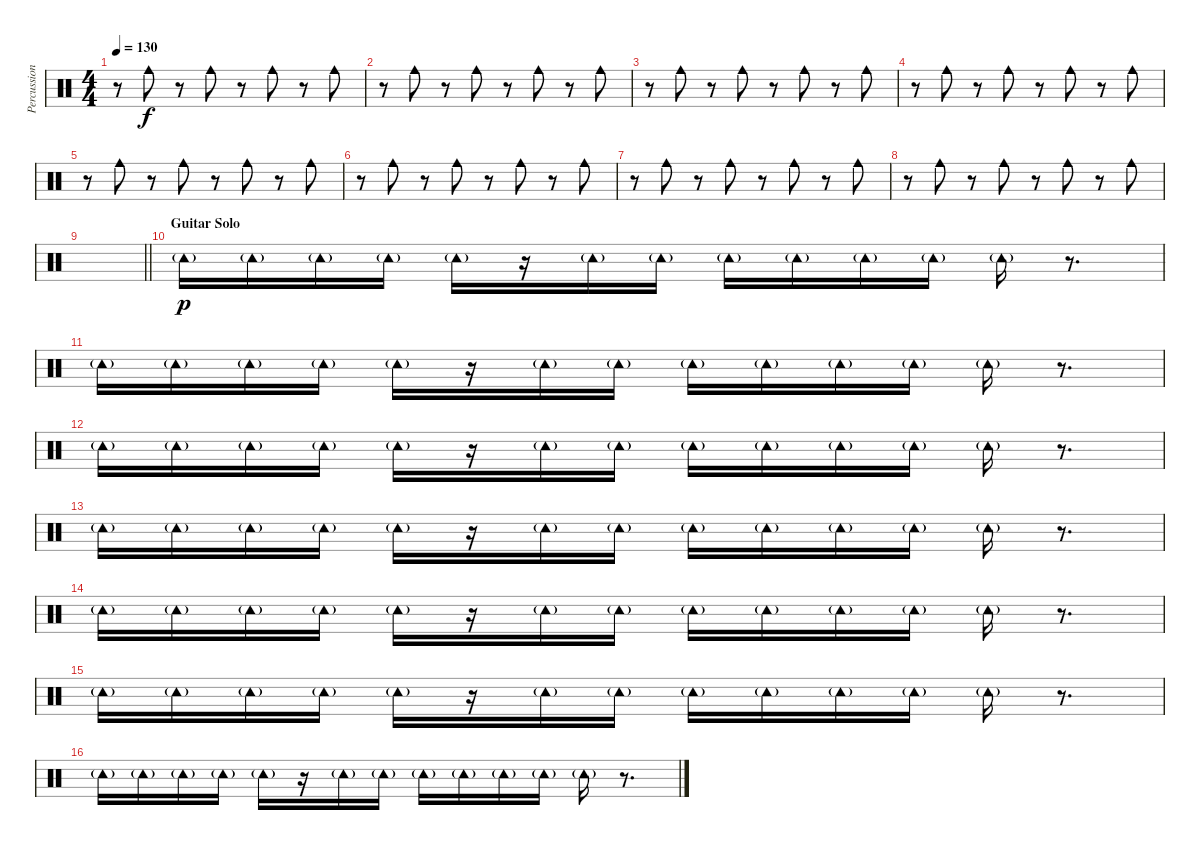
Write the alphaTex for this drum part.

\track ("Percussion 2" "Percussion") {instrument percussion}
\staff {score}
\articulation defaults
\ts (4 4)
\tempo 130
\clef neutral
\ks c
r.8{dy f} "Cowbell medium (hit)".8 r.8 "Cowbell medium (hit)".8 r.8 "Cowbell medium (hit)".8 r.8 "Cowbell medium (hit)".8 |
r.8 "Cowbell medium (hit)".8 r.8 "Cowbell medium (hit)".8 r.8 "Cowbell medium (hit)".8 r.8 "Cowbell medium (hit)".8 |
r.8 "Cowbell medium (hit)".8 r.8 "Cowbell medium (hit)".8 r.8 "Cowbell medium (hit)".8 r.8 "Cowbell medium (hit)".8 |
r.8 "Cowbell medium (hit)".8 r.8 "Cowbell medium (hit)".8 r.8 "Cowbell medium (hit)".8 r.8 "Cowbell medium (hit)".8 |
r.8 "Cowbell medium (hit)".8 r.8 "Cowbell medium (hit)".8 r.8 "Cowbell medium (hit)".8 r.8 "Cowbell medium (hit)".8 |
r.8 "Cowbell medium (hit)".8 r.8 "Cowbell medium (hit)".8 r.8 "Cowbell medium (hit)".8 r.8 "Cowbell medium (hit)".8 |
r.8 "Cowbell medium (hit)".8 r.8 "Cowbell medium (hit)".8 r.8 "Cowbell medium (hit)".8 r.8 "Cowbell medium (hit)".8 |
r.8 "Cowbell medium (hit)".8 r.8 "Cowbell medium (hit)".8 r.8 "Cowbell medium (hit)".8 r.8 "Cowbell medium (hit)".8 |
\barLineRight lightlight
|
\section ("" "Guitar Solo")
"Tambourine (hit)"{g}.16{dy p} "Tambourine (hit)"{g}.16 "Tambourine (hit)"{g}.16 "Tambourine (hit)"{g}.16 "Tambourine (hit)"{g}.16 r.16 "Tambourine (hit)"{g}.16 "Tambourine (hit)"{g}.16 "Tambourine (hit)"{g}.16 "Tambourine (hit)"{g}.16 "Tambourine (hit)"{g}.16 "Tambourine (hit)"{g}.16 "Tambourine (hit)"{g}.16 r.8{d} |
"Tambourine (hit)"{g}.16 "Tambourine (hit)"{g}.16 "Tambourine (hit)"{g}.16 "Tambourine (hit)"{g}.16 "Tambourine (hit)"{g}.16 r.16 "Tambourine (hit)"{g}.16 "Tambourine (hit)"{g}.16 "Tambourine (hit)"{g}.16 "Tambourine (hit)"{g}.16 "Tambourine (hit)"{g}.16 "Tambourine (hit)"{g}.16 "Tambourine (hit)"{g}.16 r.8{d} |
"Tambourine (hit)"{g}.16 "Tambourine (hit)"{g}.16 "Tambourine (hit)"{g}.16 "Tambourine (hit)"{g}.16 "Tambourine (hit)"{g}.16 r.16 "Tambourine (hit)"{g}.16 "Tambourine (hit)"{g}.16 "Tambourine (hit)"{g}.16 "Tambourine (hit)"{g}.16 "Tambourine (hit)"{g}.16 "Tambourine (hit)"{g}.16 "Tambourine (hit)"{g}.16 r.8{d} |
"Tambourine (hit)"{g}.16 "Tambourine (hit)"{g}.16 "Tambourine (hit)"{g}.16 "Tambourine (hit)"{g}.16 "Tambourine (hit)"{g}.16 r.16 "Tambourine (hit)"{g}.16 "Tambourine (hit)"{g}.16 "Tambourine (hit)"{g}.16 "Tambourine (hit)"{g}.16 "Tambourine (hit)"{g}.16 "Tambourine (hit)"{g}.16 "Tambourine (hit)"{g}.16 r.8{d} |
"Tambourine (hit)"{g}.16 "Tambourine (hit)"{g}.16 "Tambourine (hit)"{g}.16 "Tambourine (hit)"{g}.16 "Tambourine (hit)"{g}.16 r.16 "Tambourine (hit)"{g}.16 "Tambourine (hit)"{g}.16 "Tambourine (hit)"{g}.16 "Tambourine (hit)"{g}.16 "Tambourine (hit)"{g}.16 "Tambourine (hit)"{g}.16 "Tambourine (hit)"{g}.16 r.8{d} |
"Tambourine (hit)"{g}.16 "Tambourine (hit)"{g}.16 "Tambourine (hit)"{g}.16 "Tambourine (hit)"{g}.16 "Tambourine (hit)"{g}.16 r.16 "Tambourine (hit)"{g}.16 "Tambourine (hit)"{g}.16 "Tambourine (hit)"{g}.16 "Tambourine (hit)"{g}.16 "Tambourine (hit)"{g}.16 "Tambourine (hit)"{g}.16 "Tambourine (hit)"{g}.16 r.8{d} |
"Tambourine (hit)"{g}.16 "Tambourine (hit)"{g}.16 "Tambourine (hit)"{g}.16 "Tambourine (hit)"{g}.16 "Tambourine (hit)"{g}.16 r.16 "Tambourine (hit)"{g}.16 "Tambourine (hit)"{g}.16 "Tambourine (hit)"{g}.16 "Tambourine (hit)"{g}.16 "Tambourine (hit)"{g}.16 "Tambourine (hit)"{g}.16 "Tambourine (hit)"{g}.16 r.8{d}
